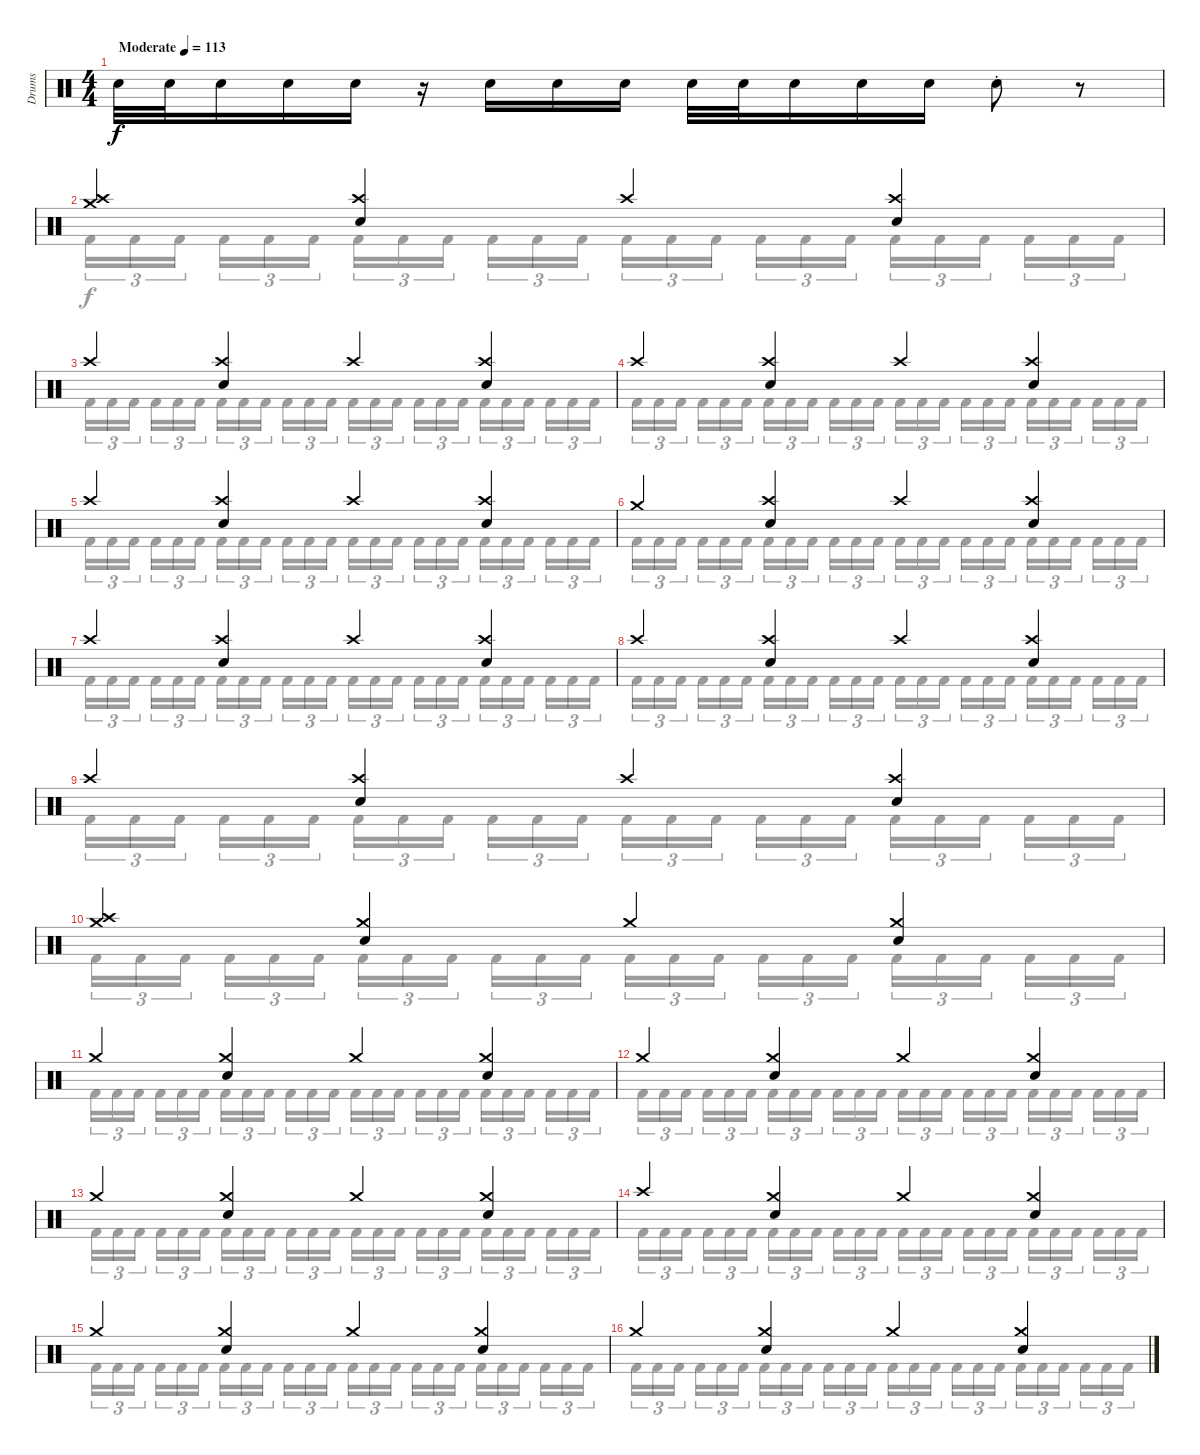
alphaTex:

\track ("Drums" "Drums") {instrument percussion}
\staff {score}
\articulation defaults
\voice
\ts (4 4)
\tempo (113 "Moderate")
\clef neutral
\ks c "Snare (hit) 2".32{dy f} "Snare (hit) 2".32 "Snare (hit) 2".16 "Snare (hit) 2".16 "Snare (hit) 2".16
r.16 "Snare (hit) 2".16 "Snare (hit) 2".16 "Snare (hit) 2".16 "Snare (hit) 2".32 "Snare (hit) 2".32 "Snare (hit) 2".16 "Snare (hit) 2".16 "Snare (hit) 2".16 "Snare (hit) 2"{st}.8 r.8 |
("Crash medium (hit)" "Crash high (hit)").4 ("Crash high (hit)" "Snare (hit) 2").4 "Crash high (hit)".4 ("Crash high (hit)" "Snare (hit) 2").4 |
"Crash high (hit)".4 ("Crash high (hit)" "Snare (hit) 2").4 "Crash high (hit)".4 ("Crash high (hit)" "Snare (hit) 2").4 |
"Crash high (hit)".4 ("Crash high (hit)" "Snare (hit) 2").4 "Crash high (hit)".4 ("Crash high (hit)" "Snare (hit) 2").4 |
"Crash high (hit)".4 ("Crash high (hit)" "Snare (hit) 2").4 "Crash high (hit)".4 ("Crash high (hit)" "Snare (hit) 2").4 |
"Crash medium (hit)".4 ("Crash high (hit)" "Snare (hit) 2").4 "Crash high (hit)".4 ("Crash high (hit)" "Snare (hit) 2").4 |
"Crash high (hit)".4 ("Crash high (hit)" "Snare (hit) 2").4 "Crash high (hit)".4 ("Crash high (hit)" "Snare (hit) 2").4 |
"Crash high (hit)".4 ("Crash high (hit)" "Snare (hit) 2").4 "Crash high (hit)".4 ("Crash high (hit)" "Snare (hit) 2").4 |
"Crash high (hit)".4 ("Crash high (hit)" "Snare (hit) 2").4 "Crash high (hit)".4 ("Crash high (hit)" "Snare (hit) 2").4 |
("Crash medium (hit)" "Crash high (hit)").4 ("Crash medium (hit)" "Snare (hit) 2").4 "Crash medium (hit)".4 ("Crash medium (hit)" "Snare (hit) 2").4 |
"Crash medium (hit)".4 ("Crash medium (hit)" "Snare (hit) 2").4 "Crash medium (hit)".4 ("Crash medium (hit)" "Snare (hit) 2").4 |
"Crash medium (hit)".4 ("Crash medium (hit)" "Snare (hit) 2").4 "Crash medium (hit)".4 ("Crash medium (hit)" "Snare (hit) 2").4 |
"Crash medium (hit)".4 ("Crash medium (hit)" "Snare (hit) 2").4 "Crash medium (hit)".4 ("Crash medium (hit)" "Snare (hit) 2").4 |
"Crash high (hit)".4 ("Crash medium (hit)" "Snare (hit) 2").4 "Crash medium (hit)".4 ("Crash medium (hit)" "Snare (hit) 2").4 |
"Crash medium (hit)".4 ("Crash medium (hit)" "Snare (hit) 2").4 "Crash medium (hit)".4 ("Crash medium (hit)" "Snare (hit) 2").4 |
"Crash medium (hit)".4 ("Crash medium (hit)" "Snare (hit) 2").4 "Crash medium (hit)".4 ("Crash medium (hit)" "Snare (hit) 2").4
\voice
\clef neutral
\ottava regular
\simile none
\ks c
|
"Kick (hit) 2".16{tu (3 2)} "Kick (hit) 2".16{tu (3 2)} "Kick (hit) 2".16{tu (3 2) beam splitsecondary} "Kick (hit) 2".16{tu (3 2)} "Kick (hit) 2".16{tu (3 2)} "Kick (hit) 2".16{tu (3 2)} "Kick (hit) 2".16{tu (3 2)} "Kick (hit) 2".16{tu (3 2)} "Kick (hit) 2".16{tu (3 2) beam splitsecondary} "Kick (hit) 2".16{tu (3 2)} "Kick (hit) 2".16{tu (3 2)} "Kick (hit) 2".16{tu (3 2)} "Kick (hit) 2".16{tu (3 2)} "Kick (hit) 2".16{tu (3 2)} "Kick (hit) 2".16{tu (3 2) beam splitsecondary} "Kick (hit) 2".16{tu (3 2)} "Kick (hit) 2".16{tu (3 2)} "Kick (hit) 2".16{tu (3 2)} "Kick (hit) 2".16{tu (3 2)} "Kick (hit) 2".16{tu (3 2)} "Kick (hit) 2".16{tu (3 2) beam splitsecondary} "Kick (hit) 2".16{tu (3 2)} "Kick (hit) 2".16{tu (3 2)} "Kick (hit) 2".16{tu (3 2)} |
"Kick (hit) 2".16{tu (3 2)} "Kick (hit) 2".16{tu (3 2)} "Kick (hit) 2".16{tu (3 2) beam splitsecondary} "Kick (hit) 2".16{tu (3 2)} "Kick (hit) 2".16{tu (3 2)} "Kick (hit) 2".16{tu (3 2)} "Kick (hit) 2".16{tu (3 2)} "Kick (hit) 2".16{tu (3 2)} "Kick (hit) 2".16{tu (3 2) beam splitsecondary} "Kick (hit) 2".16{tu (3 2)} "Kick (hit) 2".16{tu (3 2)} "Kick (hit) 2".16{tu (3 2)} "Kick (hit) 2".16{tu (3 2)} "Kick (hit) 2".16{tu (3 2)} "Kick (hit) 2".16{tu (3 2) beam splitsecondary} "Kick (hit) 2".16{tu (3 2)} "Kick (hit) 2".16{tu (3 2)} "Kick (hit) 2".16{tu (3 2)} "Kick (hit) 2".16{tu (3 2)} "Kick (hit) 2".16{tu (3 2)} "Kick (hit) 2".16{tu (3 2) beam splitsecondary} "Kick (hit) 2".16{tu (3 2)} "Kick (hit) 2".16{tu (3 2)} "Kick (hit) 2".16{tu (3 2)} |
"Kick (hit) 2".16{tu (3 2)} "Kick (hit) 2".16{tu (3 2)} "Kick (hit) 2".16{tu (3 2) beam splitsecondary} "Kick (hit) 2".16{tu (3 2)} "Kick (hit) 2".16{tu (3 2)} "Kick (hit) 2".16{tu (3 2)} "Kick (hit) 2".16{tu (3 2)} "Kick (hit) 2".16{tu (3 2)} "Kick (hit) 2".16{tu (3 2) beam splitsecondary} "Kick (hit) 2".16{tu (3 2)} "Kick (hit) 2".16{tu (3 2)} "Kick (hit) 2".16{tu (3 2)} "Kick (hit) 2".16{tu (3 2)} "Kick (hit) 2".16{tu (3 2)} "Kick (hit) 2".16{tu (3 2) beam splitsecondary} "Kick (hit) 2".16{tu (3 2)} "Kick (hit) 2".16{tu (3 2)} "Kick (hit) 2".16{tu (3 2)} "Kick (hit) 2".16{tu (3 2)} "Kick (hit) 2".16{tu (3 2)} "Kick (hit) 2".16{tu (3 2) beam splitsecondary} "Kick (hit) 2".16{tu (3 2)} "Kick (hit) 2".16{tu (3 2)} "Kick (hit) 2".16{tu (3 2)} |
"Kick (hit) 2".16{tu (3 2)} "Kick (hit) 2".16{tu (3 2)} "Kick (hit) 2".16{tu (3 2) beam splitsecondary} "Kick (hit) 2".16{tu (3 2)} "Kick (hit) 2".16{tu (3 2)} "Kick (hit) 2".16{tu (3 2)} "Kick (hit) 2".16{tu (3 2)} "Kick (hit) 2".16{tu (3 2)} "Kick (hit) 2".16{tu (3 2) beam splitsecondary} "Kick (hit) 2".16{tu (3 2)} "Kick (hit) 2".16{tu (3 2)} "Kick (hit) 2".16{tu (3 2)} "Kick (hit) 2".16{tu (3 2)} "Kick (hit) 2".16{tu (3 2)} "Kick (hit) 2".16{tu (3 2) beam splitsecondary} "Kick (hit) 2".16{tu (3 2)} "Kick (hit) 2".16{tu (3 2)} "Kick (hit) 2".16{tu (3 2)} "Kick (hit) 2".16{tu (3 2)} "Kick (hit) 2".16{tu (3 2)} "Kick (hit) 2".16{tu (3 2) beam splitsecondary} "Kick (hit) 2".16{tu (3 2)} "Kick (hit) 2".16{tu (3 2)} "Kick (hit) 2".16{tu (3 2)} |
"Kick (hit) 2".16{tu (3 2)} "Kick (hit) 2".16{tu (3 2)} "Kick (hit) 2".16{tu (3 2) beam splitsecondary} "Kick (hit) 2".16{tu (3 2)} "Kick (hit) 2".16{tu (3 2)} "Kick (hit) 2".16{tu (3 2)} "Kick (hit) 2".16{tu (3 2)} "Kick (hit) 2".16{tu (3 2)} "Kick (hit) 2".16{tu (3 2) beam splitsecondary} "Kick (hit) 2".16{tu (3 2)} "Kick (hit) 2".16{tu (3 2)} "Kick (hit) 2".16{tu (3 2)} "Kick (hit) 2".16{tu (3 2)} "Kick (hit) 2".16{tu (3 2)} "Kick (hit) 2".16{tu (3 2) beam splitsecondary} "Kick (hit) 2".16{tu (3 2)} "Kick (hit) 2".16{tu (3 2)} "Kick (hit) 2".16{tu (3 2)} "Kick (hit) 2".16{tu (3 2)} "Kick (hit) 2".16{tu (3 2)} "Kick (hit) 2".16{tu (3 2) beam splitsecondary} "Kick (hit) 2".16{tu (3 2)} "Kick (hit) 2".16{tu (3 2)} "Kick (hit) 2".16{tu (3 2)} |
"Kick (hit) 2".16{tu (3 2)} "Kick (hit) 2".16{tu (3 2)} "Kick (hit) 2".16{tu (3 2) beam splitsecondary} "Kick (hit) 2".16{tu (3 2)} "Kick (hit) 2".16{tu (3 2)} "Kick (hit) 2".16{tu (3 2)} "Kick (hit) 2".16{tu (3 2)} "Kick (hit) 2".16{tu (3 2)} "Kick (hit) 2".16{tu (3 2) beam splitsecondary} "Kick (hit) 2".16{tu (3 2)} "Kick (hit) 2".16{tu (3 2)} "Kick (hit) 2".16{tu (3 2)} "Kick (hit) 2".16{tu (3 2)} "Kick (hit) 2".16{tu (3 2)} "Kick (hit) 2".16{tu (3 2) beam splitsecondary} "Kick (hit) 2".16{tu (3 2)} "Kick (hit) 2".16{tu (3 2)} "Kick (hit) 2".16{tu (3 2)} "Kick (hit) 2".16{tu (3 2)} "Kick (hit) 2".16{tu (3 2)} "Kick (hit) 2".16{tu (3 2) beam splitsecondary} "Kick (hit) 2".16{tu (3 2)} "Kick (hit) 2".16{tu (3 2)} "Kick (hit) 2".16{tu (3 2)} |
"Kick (hit) 2".16{tu (3 2)} "Kick (hit) 2".16{tu (3 2)} "Kick (hit) 2".16{tu (3 2) beam splitsecondary} "Kick (hit) 2".16{tu (3 2)} "Kick (hit) 2".16{tu (3 2)} "Kick (hit) 2".16{tu (3 2)} "Kick (hit) 2".16{tu (3 2)} "Kick (hit) 2".16{tu (3 2)} "Kick (hit) 2".16{tu (3 2) beam splitsecondary} "Kick (hit) 2".16{tu (3 2)} "Kick (hit) 2".16{tu (3 2)} "Kick (hit) 2".16{tu (3 2)} "Kick (hit) 2".16{tu (3 2)} "Kick (hit) 2".16{tu (3 2)} "Kick (hit) 2".16{tu (3 2) beam splitsecondary} "Kick (hit) 2".16{tu (3 2)} "Kick (hit) 2".16{tu (3 2)} "Kick (hit) 2".16{tu (3 2)} "Kick (hit) 2".16{tu (3 2)} "Kick (hit) 2".16{tu (3 2)} "Kick (hit) 2".16{tu (3 2) beam splitsecondary} "Kick (hit) 2".16{tu (3 2)} "Kick (hit) 2".16{tu (3 2)} "Kick (hit) 2".16{tu (3 2)} |
"Kick (hit) 2".16{tu (3 2)} "Kick (hit) 2".16{tu (3 2)} "Kick (hit) 2".16{tu (3 2) beam splitsecondary} "Kick (hit) 2".16{tu (3 2)} "Kick (hit) 2".16{tu (3 2)} "Kick (hit) 2".16{tu (3 2)} "Kick (hit) 2".16{tu (3 2)} "Kick (hit) 2".16{tu (3 2)} "Kick (hit) 2".16{tu (3 2) beam splitsecondary} "Kick (hit) 2".16{tu (3 2)} "Kick (hit) 2".16{tu (3 2)} "Kick (hit) 2".16{tu (3 2)} "Kick (hit) 2".16{tu (3 2)} "Kick (hit) 2".16{tu (3 2)} "Kick (hit) 2".16{tu (3 2) beam splitsecondary} "Kick (hit) 2".16{tu (3 2)} "Kick (hit) 2".16{tu (3 2)} "Kick (hit) 2".16{tu (3 2)} "Kick (hit) 2".16{tu (3 2)} "Kick (hit) 2".16{tu (3 2)} "Kick (hit) 2".16{tu (3 2) beam splitsecondary} "Kick (hit) 2".16{tu (3 2)} "Kick (hit) 2".16{tu (3 2)} "Kick (hit) 2".16{tu (3 2)} |
"Kick (hit) 2".16{tu (3 2)} "Kick (hit) 2".16{tu (3 2)} "Kick (hit) 2".16{tu (3 2) beam splitsecondary} "Kick (hit) 2".16{tu (3 2)} "Kick (hit) 2".16{tu (3 2)} "Kick (hit) 2".16{tu (3 2)} "Kick (hit) 2".16{tu (3 2)} "Kick (hit) 2".16{tu (3 2)} "Kick (hit) 2".16{tu (3 2) beam splitsecondary} "Kick (hit) 2".16{tu (3 2)} "Kick (hit) 2".16{tu (3 2)} "Kick (hit) 2".16{tu (3 2)} "Kick (hit) 2".16{tu (3 2)} "Kick (hit) 2".16{tu (3 2)} "Kick (hit) 2".16{tu (3 2) beam splitsecondary} "Kick (hit) 2".16{tu (3 2)} "Kick (hit) 2".16{tu (3 2)} "Kick (hit) 2".16{tu (3 2)} "Kick (hit) 2".16{tu (3 2)} "Kick (hit) 2".16{tu (3 2)} "Kick (hit) 2".16{tu (3 2) beam splitsecondary} "Kick (hit) 2".16{tu (3 2)} "Kick (hit) 2".16{tu (3 2)} "Kick (hit) 2".16{tu (3 2)} |
"Kick (hit) 2".16{tu (3 2)} "Kick (hit) 2".16{tu (3 2)} "Kick (hit) 2".16{tu (3 2) beam splitsecondary} "Kick (hit) 2".16{tu (3 2)} "Kick (hit) 2".16{tu (3 2)} "Kick (hit) 2".16{tu (3 2)} "Kick (hit) 2".16{tu (3 2)} "Kick (hit) 2".16{tu (3 2)} "Kick (hit) 2".16{tu (3 2) beam splitsecondary} "Kick (hit) 2".16{tu (3 2)} "Kick (hit) 2".16{tu (3 2)} "Kick (hit) 2".16{tu (3 2)} "Kick (hit) 2".16{tu (3 2)} "Kick (hit) 2".16{tu (3 2)} "Kick (hit) 2".16{tu (3 2) beam splitsecondary} "Kick (hit) 2".16{tu (3 2)} "Kick (hit) 2".16{tu (3 2)} "Kick (hit) 2".16{tu (3 2)} "Kick (hit) 2".16{tu (3 2)} "Kick (hit) 2".16{tu (3 2)} "Kick (hit) 2".16{tu (3 2) beam splitsecondary} "Kick (hit) 2".16{tu (3 2)} "Kick (hit) 2".16{tu (3 2)} "Kick (hit) 2".16{tu (3 2)} |
"Kick (hit) 2".16{tu (3 2)} "Kick (hit) 2".16{tu (3 2)} "Kick (hit) 2".16{tu (3 2) beam splitsecondary} "Kick (hit) 2".16{tu (3 2)} "Kick (hit) 2".16{tu (3 2)} "Kick (hit) 2".16{tu (3 2)} "Kick (hit) 2".16{tu (3 2)} "Kick (hit) 2".16{tu (3 2)} "Kick (hit) 2".16{tu (3 2) beam splitsecondary} "Kick (hit) 2".16{tu (3 2)} "Kick (hit) 2".16{tu (3 2)} "Kick (hit) 2".16{tu (3 2)} "Kick (hit) 2".16{tu (3 2)} "Kick (hit) 2".16{tu (3 2)} "Kick (hit) 2".16{tu (3 2) beam splitsecondary} "Kick (hit) 2".16{tu (3 2)} "Kick (hit) 2".16{tu (3 2)} "Kick (hit) 2".16{tu (3 2)} "Kick (hit) 2".16{tu (3 2)} "Kick (hit) 2".16{tu (3 2)} "Kick (hit) 2".16{tu (3 2) beam splitsecondary} "Kick (hit) 2".16{tu (3 2)} "Kick (hit) 2".16{tu (3 2)} "Kick (hit) 2".16{tu (3 2)} |
"Kick (hit) 2".16{tu (3 2)} "Kick (hit) 2".16{tu (3 2)} "Kick (hit) 2".16{tu (3 2) beam splitsecondary} "Kick (hit) 2".16{tu (3 2)} "Kick (hit) 2".16{tu (3 2)} "Kick (hit) 2".16{tu (3 2)} "Kick (hit) 2".16{tu (3 2)} "Kick (hit) 2".16{tu (3 2)} "Kick (hit) 2".16{tu (3 2) beam splitsecondary} "Kick (hit) 2".16{tu (3 2)} "Kick (hit) 2".16{tu (3 2)} "Kick (hit) 2".16{tu (3 2)} "Kick (hit) 2".16{tu (3 2)} "Kick (hit) 2".16{tu (3 2)} "Kick (hit) 2".16{tu (3 2) beam splitsecondary} "Kick (hit) 2".16{tu (3 2)} "Kick (hit) 2".16{tu (3 2)} "Kick (hit) 2".16{tu (3 2)} "Kick (hit) 2".16{tu (3 2)} "Kick (hit) 2".16{tu (3 2)} "Kick (hit) 2".16{tu (3 2) beam splitsecondary} "Kick (hit) 2".16{tu (3 2)} "Kick (hit) 2".16{tu (3 2)} "Kick (hit) 2".16{tu (3 2)} |
"Kick (hit) 2".16{tu (3 2)} "Kick (hit) 2".16{tu (3 2)} "Kick (hit) 2".16{tu (3 2) beam splitsecondary} "Kick (hit) 2".16{tu (3 2)} "Kick (hit) 2".16{tu (3 2)} "Kick (hit) 2".16{tu (3 2)} "Kick (hit) 2".16{tu (3 2)} "Kick (hit) 2".16{tu (3 2)} "Kick (hit) 2".16{tu (3 2) beam splitsecondary} "Kick (hit) 2".16{tu (3 2)} "Kick (hit) 2".16{tu (3 2)} "Kick (hit) 2".16{tu (3 2)} "Kick (hit) 2".16{tu (3 2)} "Kick (hit) 2".16{tu (3 2)} "Kick (hit) 2".16{tu (3 2) beam splitsecondary} "Kick (hit) 2".16{tu (3 2)} "Kick (hit) 2".16{tu (3 2)} "Kick (hit) 2".16{tu (3 2)} "Kick (hit) 2".16{tu (3 2)} "Kick (hit) 2".16{tu (3 2)} "Kick (hit) 2".16{tu (3 2) beam splitsecondary} "Kick (hit) 2".16{tu (3 2)} "Kick (hit) 2".16{tu (3 2)} "Kick (hit) 2".16{tu (3 2)} |
"Kick (hit) 2".16{tu (3 2)} "Kick (hit) 2".16{tu (3 2)} "Kick (hit) 2".16{tu (3 2) beam splitsecondary} "Kick (hit) 2".16{tu (3 2)} "Kick (hit) 2".16{tu (3 2)} "Kick (hit) 2".16{tu (3 2)} "Kick (hit) 2".16{tu (3 2)} "Kick (hit) 2".16{tu (3 2)} "Kick (hit) 2".16{tu (3 2) beam splitsecondary} "Kick (hit) 2".16{tu (3 2)} "Kick (hit) 2".16{tu (3 2)} "Kick (hit) 2".16{tu (3 2)} "Kick (hit) 2".16{tu (3 2)} "Kick (hit) 2".16{tu (3 2)} "Kick (hit) 2".16{tu (3 2) beam splitsecondary} "Kick (hit) 2".16{tu (3 2)} "Kick (hit) 2".16{tu (3 2)} "Kick (hit) 2".16{tu (3 2)} "Kick (hit) 2".16{tu (3 2)} "Kick (hit) 2".16{tu (3 2)} "Kick (hit) 2".16{tu (3 2) beam splitsecondary} "Kick (hit) 2".16{tu (3 2)} "Kick (hit) 2".16{tu (3 2)} "Kick (hit) 2".16{tu (3 2)} |
"Kick (hit) 2".16{tu (3 2)} "Kick (hit) 2".16{tu (3 2)} "Kick (hit) 2".16{tu (3 2) beam splitsecondary} "Kick (hit) 2".16{tu (3 2)} "Kick (hit) 2".16{tu (3 2)} "Kick (hit) 2".16{tu (3 2)} "Kick (hit) 2".16{tu (3 2)} "Kick (hit) 2".16{tu (3 2)} "Kick (hit) 2".16{tu (3 2) beam splitsecondary} "Kick (hit) 2".16{tu (3 2)} "Kick (hit) 2".16{tu (3 2)} "Kick (hit) 2".16{tu (3 2)} "Kick (hit) 2".16{tu (3 2)} "Kick (hit) 2".16{tu (3 2)} "Kick (hit) 2".16{tu (3 2) beam splitsecondary} "Kick (hit) 2".16{tu (3 2)} "Kick (hit) 2".16{tu (3 2)} "Kick (hit) 2".16{tu (3 2)} "Kick (hit) 2".16{tu (3 2)} "Kick (hit) 2".16{tu (3 2)} "Kick (hit) 2".16{tu (3 2) beam splitsecondary} "Kick (hit) 2".16{tu (3 2)} "Kick (hit) 2".16{tu (3 2)} "Kick (hit) 2".16{tu (3 2)}
